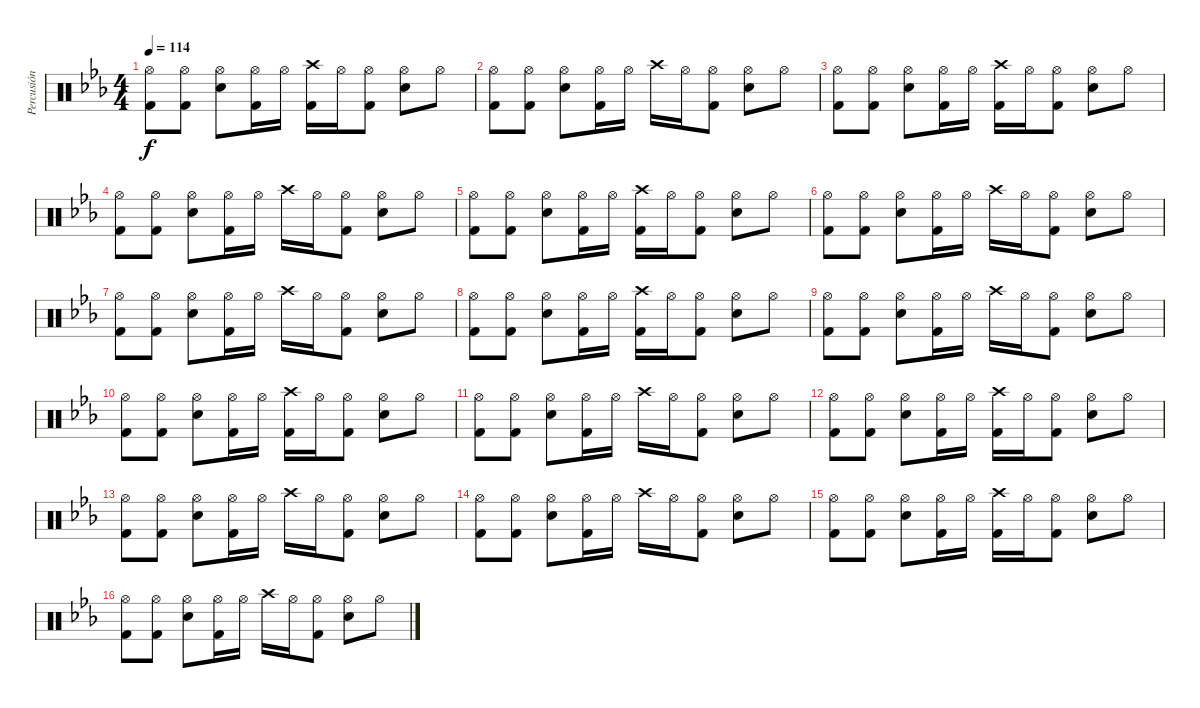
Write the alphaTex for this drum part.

\track ("Percusión" "Percusión") {instrument percussion}
\staff {score}
\articulation defaults
\ts (4 4)
\tempo 114
\clef neutral
\ks eb
("Hi-Hat (open)" "Kick (hit) 2").8{dy f} ("Hi-Hat (open)" "Kick (hit) 2").8 ("Hi-Hat (open)" "Snare (hit) 2").8 ("Hi-Hat (open)" "Kick (hit) 2").16 "Hi-Hat (open)".16 ("Crash high (hit)" "Kick (hit) 2").16 "Hi-Hat (open)".16 ("Hi-Hat (open)" "Kick (hit) 2").8 ("Hi-Hat (open)" "Snare (hit) 2").8 "Hi-Hat (open)".8 |
("Hi-Hat (open)" "Kick (hit) 2").8 ("Hi-Hat (open)" "Kick (hit) 2").8 ("Hi-Hat (open)" "Snare (hit) 2").8 ("Hi-Hat (open)" "Kick (hit) 2").16 "Hi-Hat (open)".16 "Crash high (hit)".16 "Hi-Hat (open)".16 ("Hi-Hat (open)" "Kick (hit) 2").8 ("Hi-Hat (open)" "Snare (hit) 2").8 "Hi-Hat (open)".8 |
("Hi-Hat (open)" "Kick (hit) 2").8 ("Hi-Hat (open)" "Kick (hit) 2").8 ("Hi-Hat (open)" "Snare (hit) 2").8 ("Hi-Hat (open)" "Kick (hit) 2").16 "Hi-Hat (open)".16 ("Crash high (hit)" "Kick (hit) 2").16 "Hi-Hat (open)".16 ("Hi-Hat (open)" "Kick (hit) 2").8 ("Hi-Hat (open)" "Snare (hit) 2").8 "Hi-Hat (open)".8 |
("Hi-Hat (open)" "Kick (hit) 2").8 ("Hi-Hat (open)" "Kick (hit) 2").8 ("Hi-Hat (open)" "Snare (hit) 2").8 ("Hi-Hat (open)" "Kick (hit) 2").16 "Hi-Hat (open)".16 "Crash high (hit)".16 "Hi-Hat (open)".16 ("Hi-Hat (open)" "Kick (hit) 2").8 ("Hi-Hat (open)" "Snare (hit) 2").8 "Hi-Hat (open)".8 |
("Hi-Hat (open)" "Kick (hit) 2").8 ("Hi-Hat (open)" "Kick (hit) 2").8 ("Hi-Hat (open)" "Snare (hit) 2").8 ("Hi-Hat (open)" "Kick (hit) 2").16 "Hi-Hat (open)".16 ("Crash high (hit)" "Kick (hit) 2").16 "Hi-Hat (open)".16 ("Hi-Hat (open)" "Kick (hit) 2").8 ("Hi-Hat (open)" "Snare (hit) 2").8 "Hi-Hat (open)".8 |
("Hi-Hat (open)" "Kick (hit) 2").8 ("Hi-Hat (open)" "Kick (hit) 2").8 ("Hi-Hat (open)" "Snare (hit) 2").8 ("Hi-Hat (open)" "Kick (hit) 2").16 "Hi-Hat (open)".16 "Crash high (hit)".16 "Hi-Hat (open)".16 ("Hi-Hat (open)" "Kick (hit) 2").8 ("Hi-Hat (open)" "Snare (hit) 2").8 "Hi-Hat (open)".8 |
("Hi-Hat (open)" "Kick (hit) 2").8 ("Hi-Hat (open)" "Kick (hit) 2").8 ("Hi-Hat (open)" "Snare (hit) 2").8 ("Hi-Hat (open)" "Kick (hit) 2").16 "Hi-Hat (open)".16 "Crash high (hit)".16 "Hi-Hat (open)".16 ("Hi-Hat (open)" "Kick (hit) 2").8 ("Hi-Hat (open)" "Snare (hit) 2").8 "Hi-Hat (open)".8 |
("Hi-Hat (open)" "Kick (hit) 2").8 ("Hi-Hat (open)" "Kick (hit) 2").8 ("Hi-Hat (open)" "Snare (hit) 2").8 ("Hi-Hat (open)" "Kick (hit) 2").16 "Hi-Hat (open)".16 ("Crash high (hit)" "Kick (hit) 2").16 "Hi-Hat (open)".16 ("Hi-Hat (open)" "Kick (hit) 2").8 ("Hi-Hat (open)" "Snare (hit) 2").8 "Hi-Hat (open)".8 |
("Hi-Hat (open)" "Kick (hit) 2").8 ("Hi-Hat (open)" "Kick (hit) 2").8 ("Hi-Hat (open)" "Snare (hit) 2").8 ("Hi-Hat (open)" "Kick (hit) 2").16 "Hi-Hat (open)".16 "Crash high (hit)".16 "Hi-Hat (open)".16 ("Hi-Hat (open)" "Kick (hit) 2").8 ("Hi-Hat (open)" "Snare (hit) 2").8 "Hi-Hat (open)".8 |
("Hi-Hat (open)" "Kick (hit) 2").8 ("Hi-Hat (open)" "Kick (hit) 2").8 ("Hi-Hat (open)" "Snare (hit) 2").8 ("Hi-Hat (open)" "Kick (hit) 2").16 "Hi-Hat (open)".16 ("Crash high (hit)" "Kick (hit) 2").16 "Hi-Hat (open)".16 ("Hi-Hat (open)" "Kick (hit) 2").8 ("Hi-Hat (open)" "Snare (hit) 2").8 "Hi-Hat (open)".8 |
("Hi-Hat (open)" "Kick (hit) 2").8 ("Hi-Hat (open)" "Kick (hit) 2").8 ("Hi-Hat (open)" "Snare (hit) 2").8 ("Hi-Hat (open)" "Kick (hit) 2").16 "Hi-Hat (open)".16 "Crash high (hit)".16 "Hi-Hat (open)".16 ("Hi-Hat (open)" "Kick (hit) 2").8 ("Hi-Hat (open)" "Snare (hit) 2").8 "Hi-Hat (open)".8 |
("Hi-Hat (open)" "Kick (hit) 2").8 ("Hi-Hat (open)" "Kick (hit) 2").8 ("Hi-Hat (open)" "Snare (hit) 2").8 ("Hi-Hat (open)" "Kick (hit) 2").16 "Hi-Hat (open)".16 ("Crash high (hit)" "Kick (hit) 2").16 "Hi-Hat (open)".16 ("Hi-Hat (open)" "Kick (hit) 2").8 ("Hi-Hat (open)" "Snare (hit) 2").8 "Hi-Hat (open)".8 |
("Hi-Hat (open)" "Kick (hit) 2").8 ("Hi-Hat (open)" "Kick (hit) 2").8 ("Hi-Hat (open)" "Snare (hit) 2").8 ("Hi-Hat (open)" "Kick (hit) 2").16 "Hi-Hat (open)".16 "Crash high (hit)".16 "Hi-Hat (open)".16 ("Hi-Hat (open)" "Kick (hit) 2").8 ("Hi-Hat (open)" "Snare (hit) 2").8 "Hi-Hat (open)".8 |
("Hi-Hat (open)" "Kick (hit) 2").8 ("Hi-Hat (open)" "Kick (hit) 2").8{volume 6} ("Hi-Hat (open)" "Snare (hit) 2").8 ("Hi-Hat (open)" "Kick (hit) 2").16{volume 6} "Hi-Hat (open)".16 "Crash high (hit)".16{volume 6} "Hi-Hat (open)".16 ("Hi-Hat (open)" "Kick (hit) 2").8 ("Hi-Hat (open)" "Snare (hit) 2").8{volume 6} "Hi-Hat (open)".8 |
("Hi-Hat (open)" "Kick (hit) 2").8{volume 6} ("Hi-Hat (open)" "Kick (hit) 2").8 ("Hi-Hat (open)" "Snare (hit) 2").8 ("Hi-Hat (open)" "Kick (hit) 2").16 "Hi-Hat (open)".16 ("Crash high (hit)" "Kick (hit) 2").16 "Hi-Hat (open)".16 ("Hi-Hat (open)" "Kick (hit) 2").8 ("Hi-Hat (open)" "Snare (hit) 2").8 "Hi-Hat (open)".8 |
("Hi-Hat (open)" "Kick (hit) 2").8{volume 6} ("Hi-Hat (open)" "Kick (hit) 2").8 ("Hi-Hat (open)" "Snare (hit) 2").8 ("Hi-Hat (open)" "Kick (hit) 2").16 "Hi-Hat (open)".16 "Crash high (hit)".16 "Hi-Hat (open)".16 ("Hi-Hat (open)" "Kick (hit) 2").8 ("Hi-Hat (open)" "Snare (hit) 2").8 "Hi-Hat (open)".8
